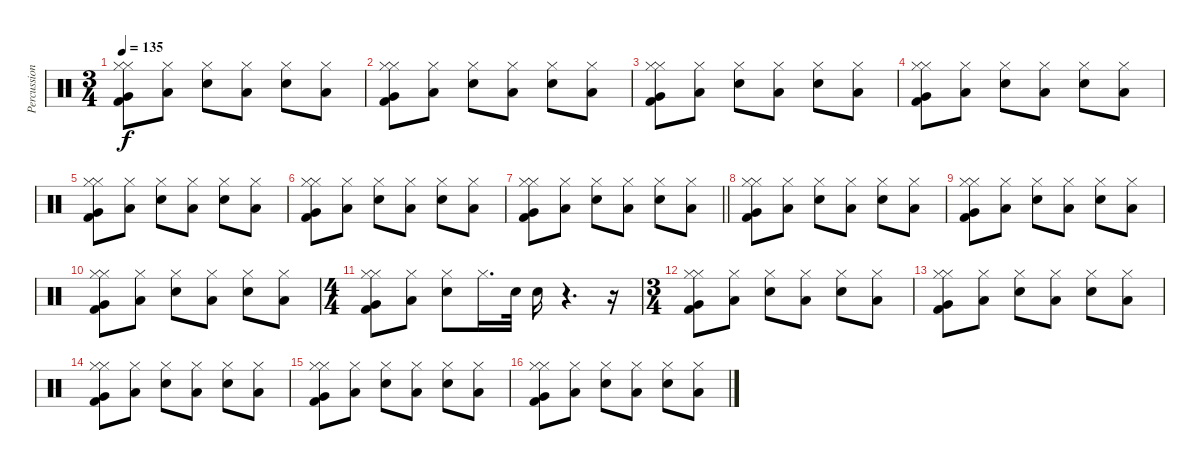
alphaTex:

\track ("Percussion" "Percussion") {instrument percussion}
\staff {score}
\articulation defaults
\ts (3 4)
\tempo 135
\clef neutral
\ks c
("Hi-Hat (closed)" "Hi-Hat (closed)" "Very Low Tom (hit)" "Kick (hit) 2").8{dy f} ("Hi-Hat (closed)" "Low Tom (hit)").8 ("Hi-Hat (closed)" "Electric Snare (hit)").8 ("Hi-Hat (closed)" "Low Tom (hit)").8 ("Hi-Hat (closed)" "Electric Snare (hit)").8 ("Hi-Hat (closed)" "Low Tom (hit)").8 |
("Hi-Hat (closed)" "Hi-Hat (closed)" "Very Low Tom (hit)" "Kick (hit) 2").8 ("Hi-Hat (closed)" "Low Tom (hit)").8 ("Hi-Hat (closed)" "Electric Snare (hit)").8 ("Hi-Hat (closed)" "Low Tom (hit)").8 ("Hi-Hat (closed)" "Electric Snare (hit)").8 ("Hi-Hat (closed)" "Low Tom (hit)").8 |
("Hi-Hat (closed)" "Hi-Hat (closed)" "Very Low Tom (hit)" "Kick (hit) 2").8 ("Hi-Hat (closed)" "Low Tom (hit)").8 ("Hi-Hat (closed)" "Electric Snare (hit)").8 ("Hi-Hat (closed)" "Low Tom (hit)").8 ("Hi-Hat (closed)" "Electric Snare (hit)").8 ("Hi-Hat (closed)" "Low Tom (hit)").8 |
("Hi-Hat (closed)" "Hi-Hat (closed)" "Very Low Tom (hit)" "Kick (hit) 2").8 ("Hi-Hat (closed)" "Low Tom (hit)").8 ("Hi-Hat (closed)" "Electric Snare (hit)").8 ("Hi-Hat (closed)" "Low Tom (hit)").8 ("Hi-Hat (closed)" "Electric Snare (hit)").8 ("Hi-Hat (closed)" "Low Tom (hit)").8 |
("Hi-Hat (closed)" "Hi-Hat (closed)" "Very Low Tom (hit)" "Kick (hit) 2").8 ("Hi-Hat (closed)" "Low Tom (hit)").8 ("Hi-Hat (closed)" "Electric Snare (hit)").8 ("Hi-Hat (closed)" "Low Tom (hit)").8 ("Hi-Hat (closed)" "Electric Snare (hit)").8 ("Hi-Hat (closed)" "Low Tom (hit)").8 |
("Hi-Hat (closed)" "Hi-Hat (closed)" "Very Low Tom (hit)" "Kick (hit) 2").8 ("Hi-Hat (closed)" "Low Tom (hit)").8 ("Hi-Hat (closed)" "Electric Snare (hit)").8 ("Hi-Hat (closed)" "Low Tom (hit)").8 ("Hi-Hat (closed)" "Electric Snare (hit)").8 ("Hi-Hat (closed)" "Low Tom (hit)").8 |
\barLineRight lightlight
("Hi-Hat (closed)" "Hi-Hat (closed)" "Very Low Tom (hit)" "Kick (hit) 2").8 ("Hi-Hat (closed)" "Low Tom (hit)").8 ("Hi-Hat (closed)" "Electric Snare (hit)").8 ("Hi-Hat (closed)" "Low Tom (hit)").8 ("Hi-Hat (closed)" "Electric Snare (hit)").8 ("Hi-Hat (closed)" "Low Tom (hit)").8 |
("Hi-Hat (closed)" "Hi-Hat (closed)" "Very Low Tom (hit)" "Kick (hit) 2").8 ("Hi-Hat (closed)" "Low Tom (hit)").8 ("Hi-Hat (closed)" "Electric Snare (hit)").8 ("Hi-Hat (closed)" "Low Tom (hit)").8 ("Hi-Hat (closed)" "Electric Snare (hit)").8 ("Hi-Hat (closed)" "Low Tom (hit)").8 |
("Hi-Hat (closed)" "Hi-Hat (closed)" "Very Low Tom (hit)" "Kick (hit) 2").8 ("Hi-Hat (closed)" "Low Tom (hit)").8 ("Hi-Hat (closed)" "Electric Snare (hit)").8 ("Hi-Hat (closed)" "Low Tom (hit)").8 ("Hi-Hat (closed)" "Electric Snare (hit)").8 ("Hi-Hat (closed)" "Low Tom (hit)").8 |
("Hi-Hat (closed)" "Hi-Hat (closed)" "Very Low Tom (hit)" "Kick (hit) 2").8 ("Hi-Hat (closed)" "Low Tom (hit)").8 ("Hi-Hat (closed)" "Electric Snare (hit)").8 ("Hi-Hat (closed)" "Low Tom (hit)").8 ("Hi-Hat (closed)" "Electric Snare (hit)").8 ("Hi-Hat (closed)" "Low Tom (hit)").8 |
\ts (4 4)
("Hi-Hat (closed)" "Hi-Hat (closed)" "Very Low Tom (hit)" "Kick (hit) 2").8 ("Hi-Hat (closed)" "Low Tom (hit)").8 ("Hi-Hat (closed)" "Electric Snare (hit)").8 "Hi-Hat (closed)".16{d} "Electric Snare (hit)".32 "Electric Snare (hit)".16 r.4{d} r.16 |
\ts (3 4)
("Hi-Hat (closed)" "Hi-Hat (closed)" "Very Low Tom (hit)" "Kick (hit) 2").8 ("Hi-Hat (closed)" "Low Tom (hit)").8 ("Hi-Hat (closed)" "Electric Snare (hit)").8 ("Hi-Hat (closed)" "Low Tom (hit)").8 ("Hi-Hat (closed)" "Electric Snare (hit)").8 ("Hi-Hat (closed)" "Low Tom (hit)").8 |
("Hi-Hat (closed)" "Hi-Hat (closed)" "Very Low Tom (hit)" "Kick (hit) 2").8 ("Hi-Hat (closed)" "Low Tom (hit)").8 ("Hi-Hat (closed)" "Electric Snare (hit)").8 ("Hi-Hat (closed)" "Low Tom (hit)").8 ("Hi-Hat (closed)" "Electric Snare (hit)").8 ("Hi-Hat (closed)" "Low Tom (hit)").8 |
("Hi-Hat (closed)" "Hi-Hat (closed)" "Very Low Tom (hit)" "Kick (hit) 2").8 ("Hi-Hat (closed)" "Low Tom (hit)").8 ("Hi-Hat (closed)" "Electric Snare (hit)").8 ("Hi-Hat (closed)" "Low Tom (hit)").8 ("Hi-Hat (closed)" "Electric Snare (hit)").8 ("Hi-Hat (closed)" "Low Tom (hit)").8 |
("Hi-Hat (closed)" "Hi-Hat (closed)" "Very Low Tom (hit)" "Kick (hit) 2").8 ("Hi-Hat (closed)" "Low Tom (hit)").8 ("Hi-Hat (closed)" "Electric Snare (hit)").8 ("Hi-Hat (closed)" "Low Tom (hit)").8 ("Hi-Hat (closed)" "Electric Snare (hit)").8 ("Hi-Hat (closed)" "Low Tom (hit)").8 |
("Hi-Hat (closed)" "Hi-Hat (closed)" "Very Low Tom (hit)" "Kick (hit) 2").8 ("Hi-Hat (closed)" "Low Tom (hit)").8 ("Hi-Hat (closed)" "Electric Snare (hit)").8 ("Hi-Hat (closed)" "Low Tom (hit)").8 ("Hi-Hat (closed)" "Electric Snare (hit)").8 ("Hi-Hat (closed)" "Low Tom (hit)").8
